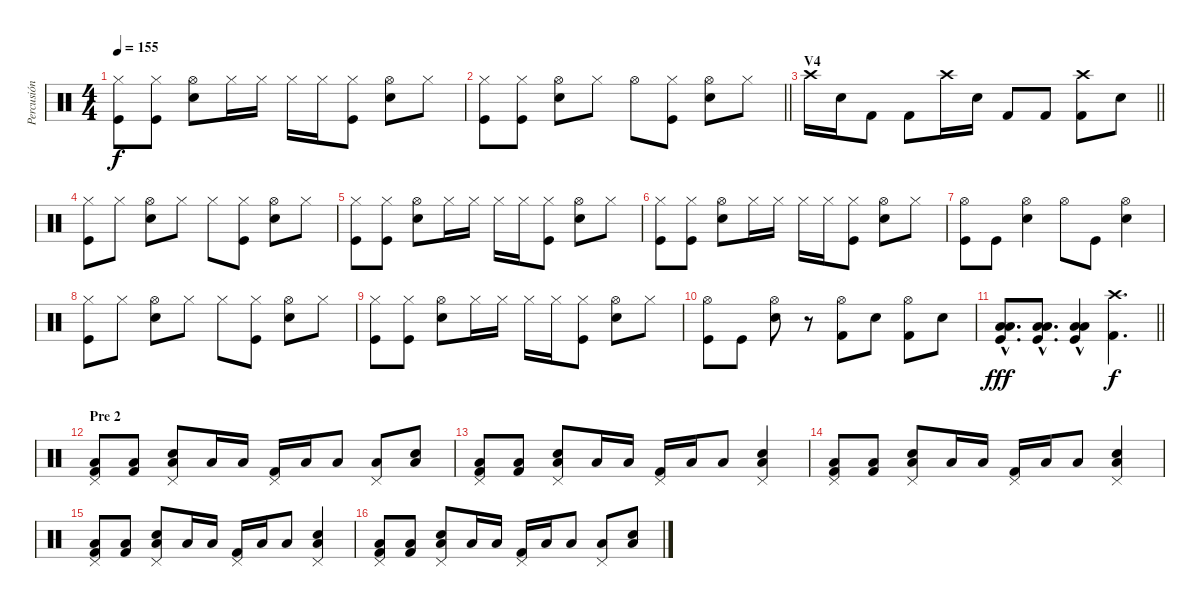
\track ("Percusión" "Percusión") {instrument percussion}
\staff {score}
\articulation defaults
\ts (4 4)
\tempo 155
\clef neutral
\ks c
("Hi-Hat (closed)" "Kick (hit)").8{dy f} ("Hi-Hat (closed)" "Kick (hit)").8 ("Hi-Hat (open)" "Snare (hit) 2").8 "Hi-Hat (closed)".16 "Hi-Hat (closed)".16 "Hi-Hat (closed)".16 "Hi-Hat (closed)".16 ("Hi-Hat (closed)" "Kick (hit)").8 ("Hi-Hat (open)" "Snare (hit) 2").8 "Hi-Hat (closed)".8 |
\barLineRight lightlight
("Hi-Hat (closed)" "Kick (hit)").8 ("Hi-Hat (closed)" "Kick (hit)").8 ("Hi-Hat (open)" "Snare (hit) 2").8 "Hi-Hat (closed)".8 "Hi-Hat (open)".8 ("Hi-Hat (closed)" "Kick (hit)").8 ("Hi-Hat (open)" "Snare (hit) 2").8 "Hi-Hat (closed)".8 |
\section ("" "V4")
\barLineRight lightlight "Crash high (hit)".16 "Snare (hit) 2".16 "Kick (hit) 2".8 "Kick (hit) 2".8 "Crash high (hit)".16 "Snare (hit) 2".16 "Kick (hit) 2".8 "Kick (hit) 2".8
("Crash high (hit)" "Kick (hit) 2").8 "Snare (hit) 2".8 |
("Hi-Hat (closed)" "Kick (hit)").8 "Hi-Hat (closed)".8 ("Hi-Hat (open)" "Snare (hit) 2").8 "Hi-Hat (closed)".8 "Hi-Hat (closed)".8 ("Hi-Hat (closed)" "Kick (hit)").8 ("Hi-Hat (open)" "Snare (hit) 2").8 "Hi-Hat (closed)".8 |
("Hi-Hat (closed)" "Kick (hit)").8 ("Hi-Hat (closed)" "Kick (hit)").8 ("Hi-Hat (open)" "Snare (hit) 2").8 "Hi-Hat (closed)".16 "Hi-Hat (closed)".16 "Hi-Hat (closed)".16 "Hi-Hat (closed)".16 ("Hi-Hat (closed)" "Kick (hit)").8 ("Hi-Hat (open)" "Snare (hit) 2").8 "Hi-Hat (closed)".8 |
("Hi-Hat (closed)" "Kick (hit)").8 ("Hi-Hat (closed)" "Kick (hit)").8 ("Hi-Hat (open)" "Snare (hit) 2").8 "Hi-Hat (closed)".16 "Hi-Hat (closed)".16 "Hi-Hat (closed)".16 "Hi-Hat (closed)".16 ("Hi-Hat (closed)" "Kick (hit)").8 ("Hi-Hat (open)" "Snare (hit) 2").8 "Hi-Hat (closed)".8 |
("Hi-Hat (open)" "Kick (hit)").8 "Kick (hit)".8 ("Hi-Hat (open)" "Snare (hit) 2").4 "Hi-Hat (open)".8 "Kick (hit)".8 ("Hi-Hat (open)" "Snare (hit) 2").4 |
("Hi-Hat (closed)" "Kick (hit)").8 "Hi-Hat (closed)".8 ("Hi-Hat (open)" "Snare (hit) 2").8 "Hi-Hat (closed)".8 "Hi-Hat (closed)".8 ("Hi-Hat (closed)" "Kick (hit)").8 ("Hi-Hat (open)" "Snare (hit) 2").8 "Hi-Hat (closed)".8 |
("Hi-Hat (closed)" "Kick (hit)").8 ("Hi-Hat (closed)" "Kick (hit)").8 ("Hi-Hat (open)" "Snare (hit) 2").8 "Hi-Hat (closed)".16 "Hi-Hat (closed)".16 "Hi-Hat (closed)".16 "Hi-Hat (closed)".16 ("Hi-Hat (closed)" "Kick (hit)").8 ("Hi-Hat (open)" "Snare (hit) 2").8 "Hi-Hat (closed)".8 |
("Hi-Hat (open)" "Kick (hit)").8 "Kick (hit)".8 ("Hi-Hat (open)" "Snare (hit) 2").8 r.8 ("Hi-Hat (open)" "Kick (hit) 2").8 "Snare (hit) 2".8 ("Hi-Hat (open)" "Kick (hit) 2").8 "Snare (hit) 2".8 |
\barLineRight lightlight
("Low Tom (hit)"{hac} "Low Floor Tom (hit)"{hac} "Kick (hit)"{hac}).8{d dy fff} ("Low Tom (hit)"{hac} "Low Floor Tom (hit)"{hac} "Kick (hit)"{hac}).8{d} ("Low Tom (hit)"{hac} "Low Floor Tom (hit)"{hac} "Kick (hit)"{hac}).4 ("Crash high (hit)" "Kick (hit) 2").4{d dy f} |
\section ("" "Pre 2")
("Low Floor Tom (hit)" "Kick (hit) 2" "Pedal Hi-Hat (hit)").8 ("Low Floor Tom (hit)" "Kick (hit) 2").8 ("Snare (hit) 2" "Low Floor Tom (hit)" "Pedal Hi-Hat (hit)").8 "Low Floor Tom (hit)".16 "Low Floor Tom (hit)".16 ("Kick (hit) 2" "Pedal Hi-Hat (hit)").16 "Low Floor Tom (hit)".16 "Low Floor Tom (hit)".8 ("Low Floor Tom (hit)" "Pedal Hi-Hat (hit)").8 ("Snare (hit) 2" "Low Floor Tom (hit)").8 |
("Low Floor Tom (hit)" "Kick (hit) 2" "Pedal Hi-Hat (hit)").8 ("Low Floor Tom (hit)" "Kick (hit) 2").8 ("Snare (hit) 2" "Low Floor Tom (hit)" "Pedal Hi-Hat (hit)").8 "Low Floor Tom (hit)".16 "Low Floor Tom (hit)".16 ("Kick (hit) 2" "Pedal Hi-Hat (hit)").16 "Low Floor Tom (hit)".16 "Low Floor Tom (hit)".8 ("Snare (hit) 2" "Low Floor Tom (hit)" "Pedal Hi-Hat (hit)").4 |
("Low Floor Tom (hit)" "Kick (hit) 2" "Pedal Hi-Hat (hit)").8 ("Low Floor Tom (hit)" "Kick (hit) 2").8 ("Snare (hit) 2" "Low Floor Tom (hit)" "Pedal Hi-Hat (hit)").8 "Low Floor Tom (hit)".16 "Low Floor Tom (hit)".16 ("Kick (hit) 2" "Pedal Hi-Hat (hit)").16 "Low Floor Tom (hit)".16 "Low Floor Tom (hit)".8 ("Snare (hit) 2" "Low Floor Tom (hit)" "Pedal Hi-Hat (hit)").4 |
("Low Floor Tom (hit)" "Kick (hit) 2" "Pedal Hi-Hat (hit)").8 ("Low Floor Tom (hit)" "Kick (hit) 2").8 ("Snare (hit) 2" "Low Floor Tom (hit)" "Pedal Hi-Hat (hit)").8 "Low Floor Tom (hit)".16 "Low Floor Tom (hit)".16 ("Kick (hit) 2" "Pedal Hi-Hat (hit)").16 "Low Floor Tom (hit)".16 "Low Floor Tom (hit)".8 ("Snare (hit) 2" "Low Floor Tom (hit)" "Pedal Hi-Hat (hit)").4 |
("Low Floor Tom (hit)" "Kick (hit) 2" "Pedal Hi-Hat (hit)").8 ("Low Floor Tom (hit)" "Kick (hit) 2").8 ("Snare (hit) 2" "Low Floor Tom (hit)" "Pedal Hi-Hat (hit)").8 "Low Floor Tom (hit)".16 "Low Floor Tom (hit)".16 ("Kick (hit) 2" "Pedal Hi-Hat (hit)").16 "Low Floor Tom (hit)".16 "Low Floor Tom (hit)".8 ("Low Floor Tom (hit)" "Pedal Hi-Hat (hit)").8 ("Snare (hit) 2" "Low Floor Tom (hit)").8
